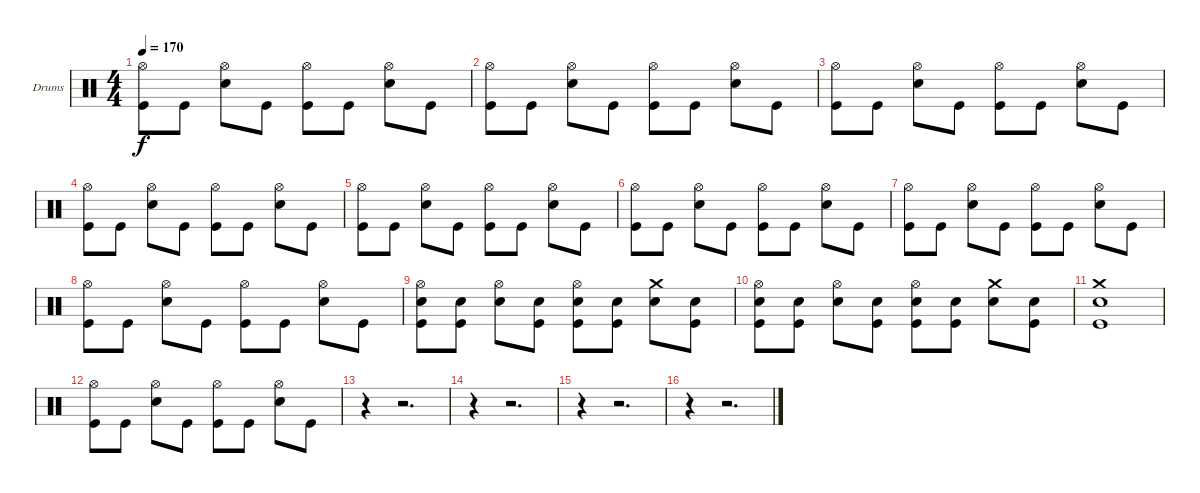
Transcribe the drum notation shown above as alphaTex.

\bracketExtendMode groupsimilarinstruments
\firstSystemTrackNameOrientation horizontal
\otherSystemsTrackNameOrientation horizontal
\track ("Drumkit" "Drums") {instrument percussion}
\staff {score}
\articulation defaults
\ts (4 4)
\tempo 170
\clef neutral
\ks c
("Hi-Hat (open)" "Kick (hit)").8{dy f} "Kick (hit)".8 ("Hi-Hat (open)" "Snare (hit) 2").8 "Kick (hit)".8 ("Hi-Hat (open)" "Kick (hit)").8 "Kick (hit)".8 ("Hi-Hat (open)" "Snare (hit) 2").8 "Kick (hit)".8 |
("Hi-Hat (open)" "Kick (hit)").8 "Kick (hit)".8 ("Hi-Hat (open)" "Snare (hit) 2").8 "Kick (hit)".8 ("Hi-Hat (open)" "Kick (hit)").8 "Kick (hit)".8 ("Hi-Hat (open)" "Snare (hit) 2").8 "Kick (hit)".8 |
("Hi-Hat (open)" "Kick (hit)").8 "Kick (hit)".8 ("Hi-Hat (open)" "Snare (hit) 2").8 "Kick (hit)".8 ("Hi-Hat (open)" "Kick (hit)").8 "Kick (hit)".8 ("Hi-Hat (open)" "Snare (hit) 2").8 "Kick (hit)".8 |
("Hi-Hat (open)" "Kick (hit)").8 "Kick (hit)".8 ("Hi-Hat (open)" "Snare (hit) 2").8 "Kick (hit)".8 ("Hi-Hat (open)" "Kick (hit)").8 "Kick (hit)".8 ("Hi-Hat (open)" "Snare (hit) 2").8 "Kick (hit)".8 |
("Hi-Hat (open)" "Kick (hit)").8 "Kick (hit)".8 ("Hi-Hat (open)" "Snare (hit) 2").8 "Kick (hit)".8 ("Hi-Hat (open)" "Kick (hit)").8 "Kick (hit)".8 ("Hi-Hat (open)" "Snare (hit) 2").8 "Kick (hit)".8 |
("Hi-Hat (open)" "Kick (hit)").8 "Kick (hit)".8 ("Hi-Hat (open)" "Snare (hit) 2").8 "Kick (hit)".8 ("Hi-Hat (open)" "Kick (hit)").8 "Kick (hit)".8 ("Hi-Hat (open)" "Snare (hit) 2").8 "Kick (hit)".8 |
("Hi-Hat (open)" "Kick (hit)").8 "Kick (hit)".8 ("Hi-Hat (open)" "Snare (hit) 2").8 "Kick (hit)".8 ("Hi-Hat (open)" "Kick (hit)").8 "Kick (hit)".8 ("Hi-Hat (open)" "Snare (hit) 2").8 "Kick (hit)".8 |
("Hi-Hat (open)" "Kick (hit)").8 "Kick (hit)".8 ("Hi-Hat (open)" "Snare (hit) 2").8 "Kick (hit)".8 ("Hi-Hat (open)" "Kick (hit)").8 "Kick (hit)".8 ("Hi-Hat (open)" "Snare (hit) 2").8 "Kick (hit)".8 |
("Hi-Hat (open)" "Snare (hit) 2" "Kick (hit)").8 ("Snare (hit) 2" "Kick (hit)").8 ("Hi-Hat (open)" "Snare (hit) 2").8 ("Snare (hit) 2" "Kick (hit)").8 ("Hi-Hat (open)" "Snare (hit) 2" "Kick (hit)").8 ("Snare (hit) 2" "Kick (hit)").8 ("Crash medium (hit)" "Snare (hit) 2").8 ("Snare (hit) 2" "Kick (hit)").8 |
("Hi-Hat (open)" "Snare (hit) 2" "Kick (hit)").8 ("Snare (hit) 2" "Kick (hit)").8 ("Hi-Hat (open)" "Snare (hit) 2").8 ("Snare (hit) 2" "Kick (hit)").8 ("Hi-Hat (open)" "Snare (hit) 2" "Kick (hit)").8 ("Snare (hit) 2" "Kick (hit)").8 ("Crash medium (hit)" "Snare (hit) 2").8 ("Snare (hit) 2" "Kick (hit)").8 |
("Crash medium (hit)" "Snare (hit) 2" "Kick (hit)").1 |
("Hi-Hat (open)" "Kick (hit)").8 "Kick (hit)".8 ("Hi-Hat (open)" "Snare (hit) 2").8 "Kick (hit)".8 ("Hi-Hat (open)" "Kick (hit)").8 "Kick (hit)".8 ("Hi-Hat (open)" "Snare (hit) 2").8 "Kick (hit)".8 |
r.4 r.2{d} |
r.4 r.2{d} |
r.4 r.2{d} |
r.4 r.2{d}
